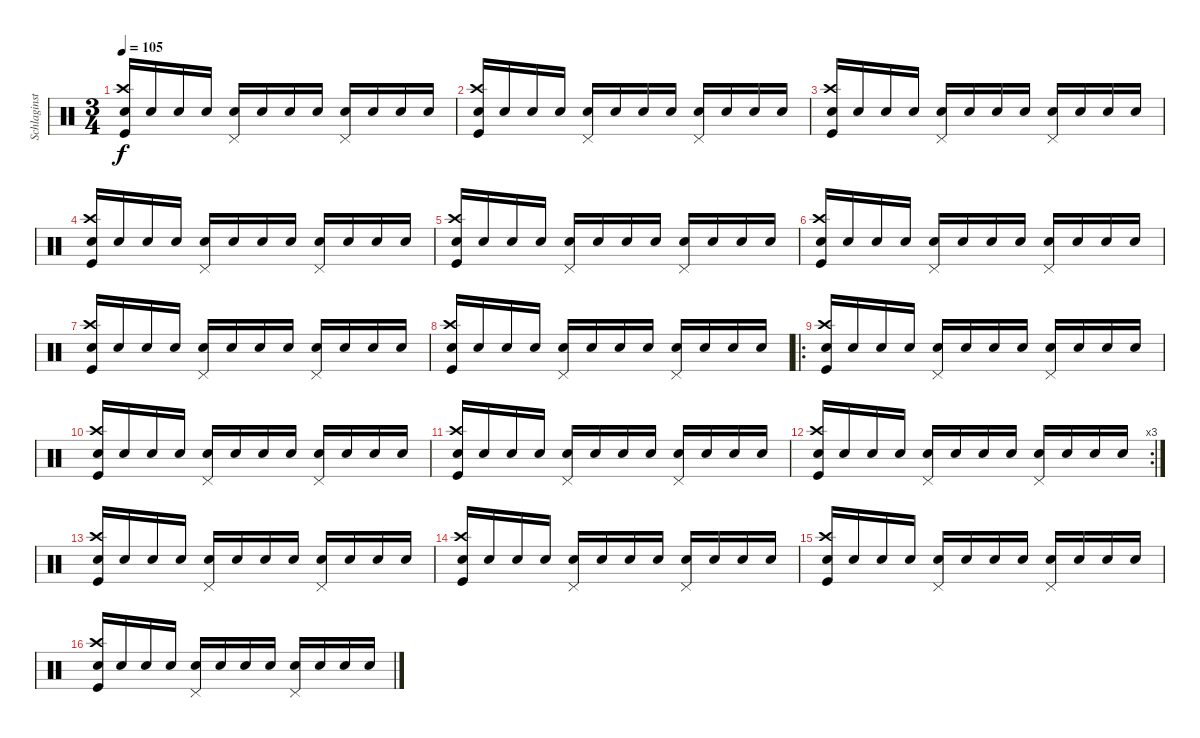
\track ("Schlaginstrumente - Auswahl" "Schlaginst") {instrument percussion}
\staff {score}
\articulation defaults
\ts (3 4)
\tempo 105
\clef neutral
\ks c
("Snare (hit) 2" "Crash high (hit)" "Kick (hit)").16{dy f} "Snare (hit) 2".16 "Snare (hit) 2".16 "Snare (hit) 2".16 ("Snare (hit) 2" "Pedal Hi-Hat (hit)").16 "Snare (hit) 2".16 "Snare (hit) 2".16 "Snare (hit) 2".16 ("Snare (hit) 2" "Pedal Hi-Hat (hit)").16 "Snare (hit) 2".16 "Snare (hit) 2".16 "Snare (hit) 2".16 |
("Snare (hit) 2" "Crash high (hit)" "Kick (hit)").16 "Snare (hit) 2".16 "Snare (hit) 2".16 "Snare (hit) 2".16 ("Snare (hit) 2" "Pedal Hi-Hat (hit)").16 "Snare (hit) 2".16 "Snare (hit) 2".16 "Snare (hit) 2".16 ("Snare (hit) 2" "Pedal Hi-Hat (hit)").16 "Snare (hit) 2".16 "Snare (hit) 2".16 "Snare (hit) 2".16 |
("Snare (hit) 2" "Crash high (hit)" "Kick (hit)").16 "Snare (hit) 2".16 "Snare (hit) 2".16 "Snare (hit) 2".16 ("Snare (hit) 2" "Pedal Hi-Hat (hit)").16 "Snare (hit) 2".16 "Snare (hit) 2".16 "Snare (hit) 2".16 ("Snare (hit) 2" "Pedal Hi-Hat (hit)").16 "Snare (hit) 2".16 "Snare (hit) 2".16 "Snare (hit) 2".16 |
("Snare (hit) 2" "Crash high (hit)" "Kick (hit)").16 "Snare (hit) 2".16 "Snare (hit) 2".16 "Snare (hit) 2".16 ("Snare (hit) 2" "Pedal Hi-Hat (hit)").16 "Snare (hit) 2".16 "Snare (hit) 2".16 "Snare (hit) 2".16 ("Snare (hit) 2" "Pedal Hi-Hat (hit)").16 "Snare (hit) 2".16 "Snare (hit) 2".16 "Snare (hit) 2".16 |
("Snare (hit) 2" "Crash high (hit)" "Kick (hit)").16 "Snare (hit) 2".16 "Snare (hit) 2".16 "Snare (hit) 2".16 ("Snare (hit) 2" "Pedal Hi-Hat (hit)").16 "Snare (hit) 2".16 "Snare (hit) 2".16 "Snare (hit) 2".16 ("Snare (hit) 2" "Pedal Hi-Hat (hit)").16 "Snare (hit) 2".16 "Snare (hit) 2".16 "Snare (hit) 2".16 |
("Snare (hit) 2" "Crash high (hit)" "Kick (hit)").16 "Snare (hit) 2".16 "Snare (hit) 2".16 "Snare (hit) 2".16 ("Snare (hit) 2" "Pedal Hi-Hat (hit)").16 "Snare (hit) 2".16 "Snare (hit) 2".16 "Snare (hit) 2".16 ("Snare (hit) 2" "Pedal Hi-Hat (hit)").16 "Snare (hit) 2".16 "Snare (hit) 2".16 "Snare (hit) 2".16 |
("Snare (hit) 2" "Crash high (hit)" "Kick (hit)").16 "Snare (hit) 2".16 "Snare (hit) 2".16 "Snare (hit) 2".16 ("Snare (hit) 2" "Pedal Hi-Hat (hit)").16 "Snare (hit) 2".16 "Snare (hit) 2".16 "Snare (hit) 2".16 ("Snare (hit) 2" "Pedal Hi-Hat (hit)").16 "Snare (hit) 2".16 "Snare (hit) 2".16 "Snare (hit) 2".16 |
("Snare (hit) 2" "Crash high (hit)" "Kick (hit)").16 "Snare (hit) 2".16 "Snare (hit) 2".16 "Snare (hit) 2".16 ("Snare (hit) 2" "Pedal Hi-Hat (hit)").16 "Snare (hit) 2".16 "Snare (hit) 2".16 "Snare (hit) 2".16 ("Snare (hit) 2" "Pedal Hi-Hat (hit)").16 "Snare (hit) 2".16 "Snare (hit) 2".16 "Snare (hit) 2".16 |
\ro
("Snare (hit) 2" "Crash high (hit)" "Kick (hit)").16 "Snare (hit) 2".16 "Snare (hit) 2".16 "Snare (hit) 2".16 ("Snare (hit) 2" "Pedal Hi-Hat (hit)").16 "Snare (hit) 2".16 "Snare (hit) 2".16 "Snare (hit) 2".16 ("Snare (hit) 2" "Pedal Hi-Hat (hit)").16 "Snare (hit) 2".16 "Snare (hit) 2".16 "Snare (hit) 2".16 |
("Snare (hit) 2" "Crash high (hit)" "Kick (hit)").16 "Snare (hit) 2".16 "Snare (hit) 2".16 "Snare (hit) 2".16 ("Snare (hit) 2" "Pedal Hi-Hat (hit)").16 "Snare (hit) 2".16 "Snare (hit) 2".16 "Snare (hit) 2".16 ("Snare (hit) 2" "Pedal Hi-Hat (hit)").16 "Snare (hit) 2".16 "Snare (hit) 2".16 "Snare (hit) 2".16 |
("Snare (hit) 2" "Crash high (hit)" "Kick (hit)").16 "Snare (hit) 2".16 "Snare (hit) 2".16 "Snare (hit) 2".16 ("Snare (hit) 2" "Pedal Hi-Hat (hit)").16 "Snare (hit) 2".16 "Snare (hit) 2".16 "Snare (hit) 2".16 ("Snare (hit) 2" "Pedal Hi-Hat (hit)").16 "Snare (hit) 2".16 "Snare (hit) 2".16 "Snare (hit) 2".16 |
\rc 3
("Snare (hit) 2" "Crash high (hit)" "Kick (hit)").16 "Snare (hit) 2".16 "Snare (hit) 2".16 "Snare (hit) 2".16 ("Snare (hit) 2" "Pedal Hi-Hat (hit)").16 "Snare (hit) 2".16 "Snare (hit) 2".16 "Snare (hit) 2".16 ("Snare (hit) 2" "Pedal Hi-Hat (hit)").16 "Snare (hit) 2".16 "Snare (hit) 2".16 "Snare (hit) 2".16 |
("Snare (hit) 2" "Crash high (hit)" "Kick (hit)").16 "Snare (hit) 2".16 "Snare (hit) 2".16 "Snare (hit) 2".16 ("Snare (hit) 2" "Pedal Hi-Hat (hit)").16 "Snare (hit) 2".16 "Snare (hit) 2".16 "Snare (hit) 2".16 ("Snare (hit) 2" "Pedal Hi-Hat (hit)").16 "Snare (hit) 2".16 "Snare (hit) 2".16 "Snare (hit) 2".16 |
("Snare (hit) 2" "Crash high (hit)" "Kick (hit)").16 "Snare (hit) 2".16 "Snare (hit) 2".16 "Snare (hit) 2".16 ("Snare (hit) 2" "Pedal Hi-Hat (hit)").16 "Snare (hit) 2".16 "Snare (hit) 2".16 "Snare (hit) 2".16 ("Snare (hit) 2" "Pedal Hi-Hat (hit)").16 "Snare (hit) 2".16 "Snare (hit) 2".16 "Snare (hit) 2".16 |
("Snare (hit) 2" "Crash high (hit)" "Kick (hit)").16 "Snare (hit) 2".16 "Snare (hit) 2".16 "Snare (hit) 2".16 ("Snare (hit) 2" "Pedal Hi-Hat (hit)").16 "Snare (hit) 2".16 "Snare (hit) 2".16 "Snare (hit) 2".16 ("Snare (hit) 2" "Pedal Hi-Hat (hit)").16 "Snare (hit) 2".16 "Snare (hit) 2".16 "Snare (hit) 2".16 |
("Snare (hit) 2" "Crash high (hit)" "Kick (hit)").16 "Snare (hit) 2".16 "Snare (hit) 2".16 "Snare (hit) 2".16 ("Snare (hit) 2" "Pedal Hi-Hat (hit)").16 "Snare (hit) 2".16 "Snare (hit) 2".16 "Snare (hit) 2".16 ("Snare (hit) 2" "Pedal Hi-Hat (hit)").16 "Snare (hit) 2".16 "Snare (hit) 2".16 "Snare (hit) 2".16
